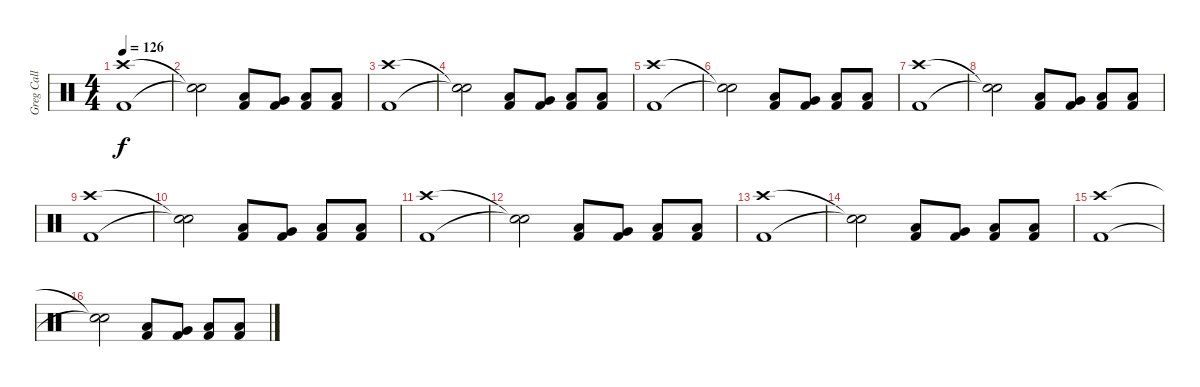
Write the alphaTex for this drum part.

\track ("Greg Call (Drums)" "Greg Call ") {instrument percussion}
\staff {score}
\articulation defaults
\ts (4 4)
\tempo 126
\clef neutral
\ks c
("Crash high (hit)" "Kick (hit) 2").1{dy f} |
("Snare (hit)"{t} "Snare (hit)"{t}).2 ("Low Tom (hit)" "Kick (hit) 2").8 ("Very Low Tom (hit)" "Kick (hit) 2").8 ("Low Floor Tom (hit)" "Kick (hit) 2").8 ("Low Floor Tom (hit)" "Kick (hit) 2").8 |
("Crash high (hit)" "Kick (hit) 2").1 |
("Snare (hit)"{t} "Snare (hit)"{t}).2 ("Low Tom (hit)" "Kick (hit) 2").8 ("Very Low Tom (hit)" "Kick (hit) 2").8 ("Low Floor Tom (hit)" "Kick (hit) 2").8 ("Low Floor Tom (hit)" "Kick (hit) 2").8 |
("Crash high (hit)" "Kick (hit) 2").1 |
("Snare (hit)"{t} "Snare (hit)"{t}).2 ("Low Tom (hit)" "Kick (hit) 2").8 ("Very Low Tom (hit)" "Kick (hit) 2").8 ("Low Floor Tom (hit)" "Kick (hit) 2").8 ("Low Floor Tom (hit)" "Kick (hit) 2").8 |
("Crash high (hit)" "Kick (hit) 2").1 |
("Snare (hit)"{t} "Snare (hit)"{t}).2 ("Low Tom (hit)" "Kick (hit) 2").8 ("Very Low Tom (hit)" "Kick (hit) 2").8 ("Low Floor Tom (hit)" "Kick (hit) 2").8 ("Low Floor Tom (hit)" "Kick (hit) 2").8 |
("Crash high (hit)" "Kick (hit) 2").1 |
("Snare (hit)"{t} "Snare (hit)"{t}).2 ("Low Tom (hit)" "Kick (hit) 2").8 ("Very Low Tom (hit)" "Kick (hit) 2").8 ("Low Floor Tom (hit)" "Kick (hit) 2").8 ("Low Floor Tom (hit)" "Kick (hit) 2").8 |
("Crash high (hit)" "Kick (hit) 2").1 |
("Snare (hit)"{t} "Snare (hit)"{t}).2 ("Low Tom (hit)" "Kick (hit) 2").8 ("Very Low Tom (hit)" "Kick (hit) 2").8 ("Low Floor Tom (hit)" "Kick (hit) 2").8 ("Low Floor Tom (hit)" "Kick (hit) 2").8 |
("Crash high (hit)" "Kick (hit) 2").1 |
("Snare (hit)"{t} "Snare (hit)"{t}).2 ("Low Tom (hit)" "Kick (hit) 2").8 ("Very Low Tom (hit)" "Kick (hit) 2").8 ("Low Floor Tom (hit)" "Kick (hit) 2").8 ("Low Floor Tom (hit)" "Kick (hit) 2").8 |
("Crash high (hit)" "Kick (hit) 2").1 |
("Snare (hit)"{t} "Snare (hit)"{t}).2 ("Low Tom (hit)" "Kick (hit) 2").8 ("Very Low Tom (hit)" "Kick (hit) 2").8 ("Low Floor Tom (hit)" "Kick (hit) 2").8 ("Low Floor Tom (hit)" "Kick (hit) 2").8
